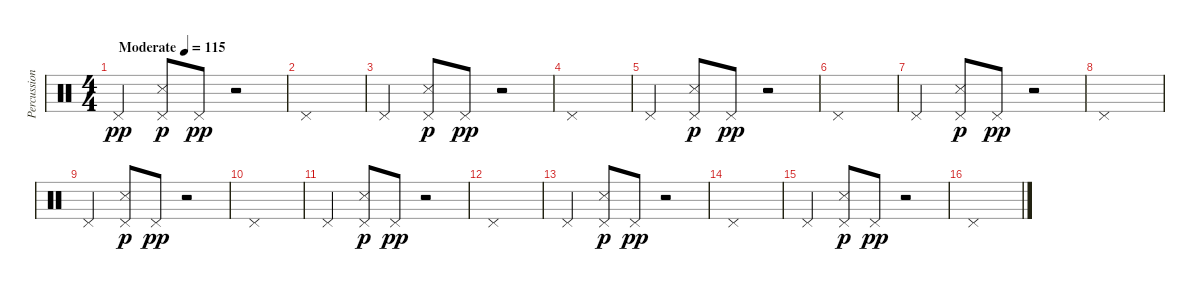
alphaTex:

\track ("Percussion" "Percussion") {instrument percussion}
\staff {score}
\articulation defaults
\ts (4 4)
\tempo (115 "Moderate")
\clef neutral
\ks c "Pedal Hi-Hat (hit)".4{dy pp}
("Pedal Hi-Hat (hit)" "Snare (side stick) 3").8{dy p} "Pedal Hi-Hat (hit)".8{dy pp} r.2 |
"Pedal Hi-Hat (hit)".1 |
"Pedal Hi-Hat (hit)".4 ("Pedal Hi-Hat (hit)" "Snare (side stick) 3").8{dy p} "Pedal Hi-Hat (hit)".8{dy pp} r.2 |
"Pedal Hi-Hat (hit)".1 |
"Pedal Hi-Hat (hit)".4 ("Pedal Hi-Hat (hit)" "Snare (side stick) 3").8{dy p} "Pedal Hi-Hat (hit)".8{dy pp} r.2 |
"Pedal Hi-Hat (hit)".1 |
"Pedal Hi-Hat (hit)".4 ("Pedal Hi-Hat (hit)" "Snare (side stick) 3").8{dy p} "Pedal Hi-Hat (hit)".8{dy pp} r.2 |
"Pedal Hi-Hat (hit)".1 |
"Pedal Hi-Hat (hit)".4 ("Pedal Hi-Hat (hit)" "Snare (side stick) 3").8{dy p} "Pedal Hi-Hat (hit)".8{dy pp} r.2 |
"Pedal Hi-Hat (hit)".1 |
"Pedal Hi-Hat (hit)".4 ("Pedal Hi-Hat (hit)" "Snare (side stick) 3").8{dy p} "Pedal Hi-Hat (hit)".8{dy pp} r.2 |
"Pedal Hi-Hat (hit)".1 |
"Pedal Hi-Hat (hit)".4 ("Pedal Hi-Hat (hit)" "Snare (side stick) 3").8{dy p} "Pedal Hi-Hat (hit)".8{dy pp} r.2 |
"Pedal Hi-Hat (hit)".1 |
"Pedal Hi-Hat (hit)".4 ("Pedal Hi-Hat (hit)" "Snare (side stick) 3").8{dy p} "Pedal Hi-Hat (hit)".8{dy pp} r.2 |
"Pedal Hi-Hat (hit)".1
